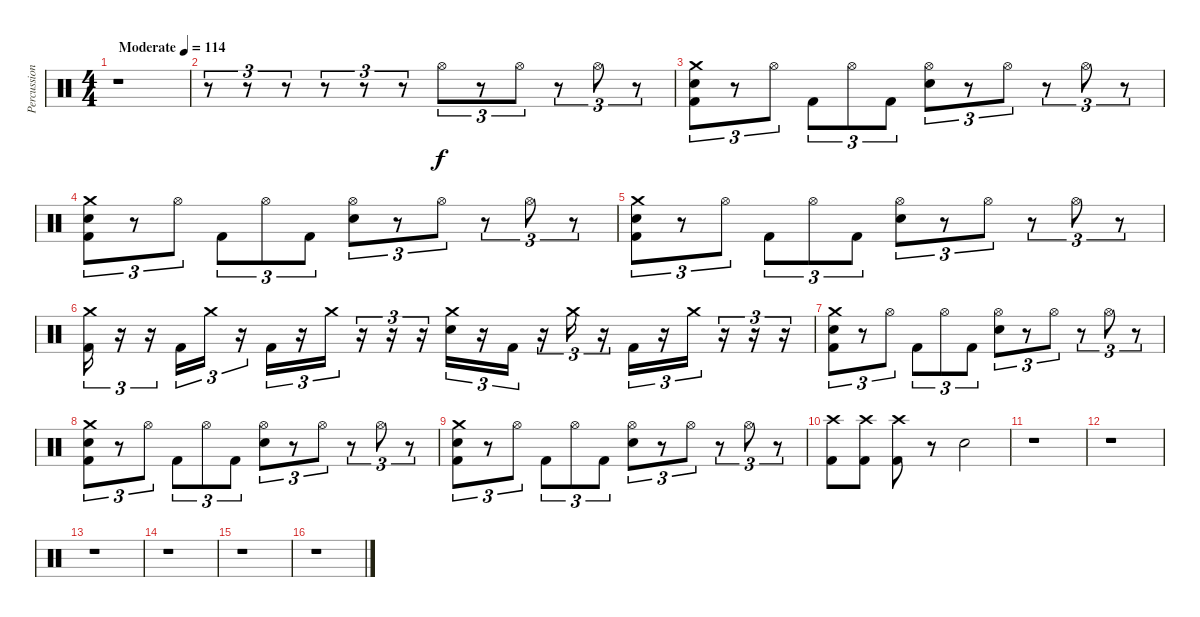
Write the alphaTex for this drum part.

\track ("Percussion" "Percussion") {instrument percussion}
\staff {score}
\articulation defaults
\ts (4 4)
\tempo (114 "Moderate")
\clef neutral
\ks c
r.1{dy f} |
r.8{tu (3 2)} r.8{tu (3 2)} r.8{tu (3 2)} r.8{tu (3 2)} r.8{tu (3 2)} r.8{tu (3 2)} "Hi-Hat (open)".8{tu (3 2)} r.8{tu (3 2)} "Hi-Hat (open)".8{tu (3 2)} r.8{tu (3 2)} "Hi-Hat (open)".8{tu (3 2)} r.8{tu (3 2)} |
("Crash medium (hit)" "Electric Snare (hit)" "Kick (hit) 2").8{tu (3 2)} r.8{tu (3 2)} "Hi-Hat (open)".8{tu (3 2)} "Kick (hit) 2".8{tu (3 2)} "Hi-Hat (open)".8{tu (3 2)} "Kick (hit) 2".8{tu (3 2)} ("Hi-Hat (open)" "Electric Snare (hit)").8{tu (3 2)} r.8{tu (3 2)} "Hi-Hat (open)".8{tu (3 2)} r.8{tu (3 2)} "Hi-Hat (open)".8{tu (3 2)} r.8{tu (3 2)} |
("Crash medium (hit)" "Electric Snare (hit)" "Kick (hit) 2").8{tu (3 2)} r.8{tu (3 2)} "Hi-Hat (open)".8{tu (3 2)} "Kick (hit) 2".8{tu (3 2)} "Hi-Hat (open)".8{tu (3 2)} "Kick (hit) 2".8{tu (3 2)} ("Hi-Hat (open)" "Electric Snare (hit)").8{tu (3 2)} r.8{tu (3 2)} "Hi-Hat (open)".8{tu (3 2)} r.8{tu (3 2)} "Hi-Hat (open)".8{tu (3 2)} r.8{tu (3 2)} |
("Crash medium (hit)" "Electric Snare (hit)" "Kick (hit) 2").8{tu (3 2)} r.8{tu (3 2)} "Hi-Hat (open)".8{tu (3 2)} "Kick (hit) 2".8{tu (3 2)} "Hi-Hat (open)".8{tu (3 2)} "Kick (hit) 2".8{tu (3 2)} ("Hi-Hat (open)" "Electric Snare (hit)").8{tu (3 2)} r.8{tu (3 2)} "Hi-Hat (open)".8{tu (3 2)} r.8{tu (3 2)} "Hi-Hat (open)".8{tu (3 2)} r.8{tu (3 2)} |
("Crash medium (hit)" "Kick (hit) 2").16{tu (3 2)} r.16{tu (3 2)} r.16{tu (3 2)} "Kick (hit) 2".16{tu (3 2)} "Crash medium (hit)".16{tu (3 2)} r.16{tu (3 2)} "Kick (hit) 2".16{tu (3 2)} r.16{tu (3 2)} "Crash medium (hit)".16{tu (3 2)} r.16{tu (3 2)} r.16{tu (3 2)} r.16{tu (3 2)} ("Crash medium (hit)" "Electric Snare (hit)").16{tu (3 2)} r.16{tu (3 2)} "Kick (hit) 2".16{tu (3 2)} r.16{tu (3 2)} "Crash medium (hit)".16{tu (3 2)} r.16{tu (3 2)} "Kick (hit) 2".16{tu (3 2)} r.16{tu (3 2)} "Crash medium (hit)".16{tu (3 2)} r.16{tu (3 2)} r.16{tu (3 2)} r.16{tu (3 2)} |
("Crash medium (hit)" "Electric Snare (hit)" "Kick (hit) 2").8{tu (3 2)} r.8{tu (3 2)} "Hi-Hat (open)".8{tu (3 2)} "Kick (hit) 2".8{tu (3 2)} "Hi-Hat (open)".8{tu (3 2)} "Kick (hit) 2".8{tu (3 2)} ("Hi-Hat (open)" "Electric Snare (hit)").8{tu (3 2)} r.8{tu (3 2)} "Hi-Hat (open)".8{tu (3 2)} r.8{tu (3 2)} "Hi-Hat (open)".8{tu (3 2)} r.8{tu (3 2)} |
("Crash medium (hit)" "Electric Snare (hit)" "Kick (hit) 2").8{tu (3 2)} r.8{tu (3 2)} "Hi-Hat (open)".8{tu (3 2)} "Kick (hit) 2".8{tu (3 2)} "Hi-Hat (open)".8{tu (3 2)} "Kick (hit) 2".8{tu (3 2)} ("Hi-Hat (open)" "Electric Snare (hit)").8{tu (3 2)} r.8{tu (3 2)} "Hi-Hat (open)".8{tu (3 2)} r.8{tu (3 2)} "Hi-Hat (open)".8{tu (3 2)} r.8{tu (3 2)} |
("Crash medium (hit)" "Electric Snare (hit)" "Kick (hit) 2").8{tu (3 2)} r.8{tu (3 2)} "Hi-Hat (open)".8{tu (3 2)} "Kick (hit) 2".8{tu (3 2)} "Hi-Hat (open)".8{tu (3 2)} "Kick (hit) 2".8{tu (3 2)} ("Hi-Hat (open)" "Electric Snare (hit)").8{tu (3 2)} r.8{tu (3 2)} "Hi-Hat (open)".8{tu (3 2)} r.8{tu (3 2)} "Hi-Hat (open)".8{tu (3 2)} r.8{tu (3 2)} |
("Crash high (hit)" "Kick (hit) 2").8 ("Crash high (hit)" "Kick (hit) 2").8 ("Crash high (hit)" "Kick (hit) 2").8 r.8 "Electric Snare (hit)".2 |
r.1 |
r.1 |
r.1 |
r.1 |
r.1 |
r.1
